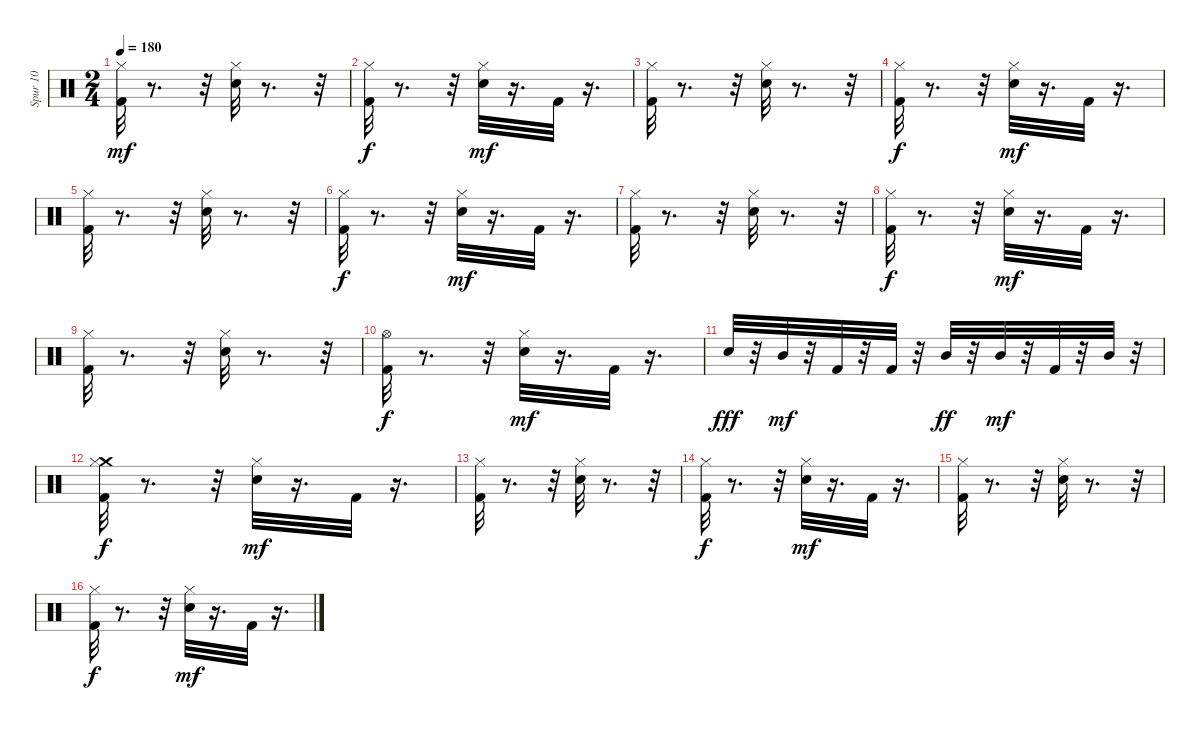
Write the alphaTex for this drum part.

\track ("Spur 10" "Spur 10") {instrument percussion}
\staff {score}
\articulation defaults
\ts (2 4)
\tempo 180
\clef neutral
\ks c
("Hi-Hat (closed)" "Kick (hit) 2").32{dy mf} r.8{d} r.32 ("Electric Snare (hit)" "Hi-Hat (closed)").32 r.8{d} r.32 |
("Hi-Hat (closed)" "Kick (hit) 2").32{dy f} r.8{d} r.32 ("Electric Snare (hit)" "Hi-Hat (closed)").32{dy mf} r.16{d} "Kick (hit) 2".32 r.16{d} |
("Hi-Hat (closed)" "Kick (hit) 2").32 r.8{d} r.32 ("Electric Snare (hit)" "Hi-Hat (closed)").32 r.8{d} r.32 |
("Hi-Hat (closed)" "Kick (hit) 2").32{dy f} r.8{d} r.32 ("Electric Snare (hit)" "Hi-Hat (closed)").32{dy mf} r.16{d} "Kick (hit) 2".32 r.16{d} |
("Hi-Hat (closed)" "Kick (hit) 2").32 r.8{d} r.32 ("Electric Snare (hit)" "Hi-Hat (closed)").32 r.8{d} r.32 |
("Hi-Hat (closed)" "Kick (hit) 2").32{dy f} r.8{d} r.32 ("Electric Snare (hit)" "Hi-Hat (closed)").32{dy mf} r.16{d} "Kick (hit) 2".32 r.16{d} |
("Hi-Hat (closed)" "Kick (hit) 2").32 r.8{d} r.32 ("Electric Snare (hit)" "Hi-Hat (closed)").32 r.8{d} r.32 |
("Hi-Hat (closed)" "Kick (hit) 2").32{dy f} r.8{d} r.32 ("Electric Snare (hit)" "Hi-Hat (closed)").32{dy mf} r.16{d} "Kick (hit) 2".32 r.16{d} |
("Hi-Hat (closed)" "Kick (hit) 2").32 r.8{d} r.32 ("Electric Snare (hit)" "Hi-Hat (closed)").32 r.8{d} r.32 |
("Hi-Hat (open)" "Kick (hit) 2").32{dy f} r.8{d} r.32 ("Electric Snare (hit)" "Hi-Hat (closed)").32{dy mf} r.16{d} "Kick (hit) 2".32 r.16{d} |
"Electric Snare (hit)".32{dy fff} r.32 "Mid Tom (hit)".32{dy mf} r.32 "Kick (hit) 2".32 r.32 "Kick (hit) 2".32 r.32 "Mid Tom (hit)".32{dy ff} r.32 "Mid Tom (hit)".32{dy mf} r.32 "Kick (hit) 2".32 r.32 "Mid Tom (hit)".32 r.32 |
("Crash medium (hit)" "Hi-Hat (closed)" "Kick (hit) 2").32{dy f} r.8{d} r.32 ("Electric Snare (hit)" "Hi-Hat (closed)").32{dy mf} r.16{d} "Kick (hit) 2".32 r.16{d} |
("Hi-Hat (closed)" "Kick (hit) 2").32 r.8{d} r.32 ("Electric Snare (hit)" "Hi-Hat (closed)").32 r.8{d} r.32 |
("Hi-Hat (closed)" "Kick (hit) 2").32{dy f} r.8{d} r.32 ("Electric Snare (hit)" "Hi-Hat (closed)").32{dy mf} r.16{d} "Kick (hit) 2".32 r.16{d} |
("Hi-Hat (closed)" "Kick (hit) 2").32 r.8{d} r.32 ("Electric Snare (hit)" "Hi-Hat (closed)").32 r.8{d} r.32 |
("Hi-Hat (closed)" "Kick (hit) 2").32{dy f} r.8{d} r.32 ("Electric Snare (hit)" "Hi-Hat (closed)").32{dy mf} r.16{d} "Kick (hit) 2".32 r.16{d}
